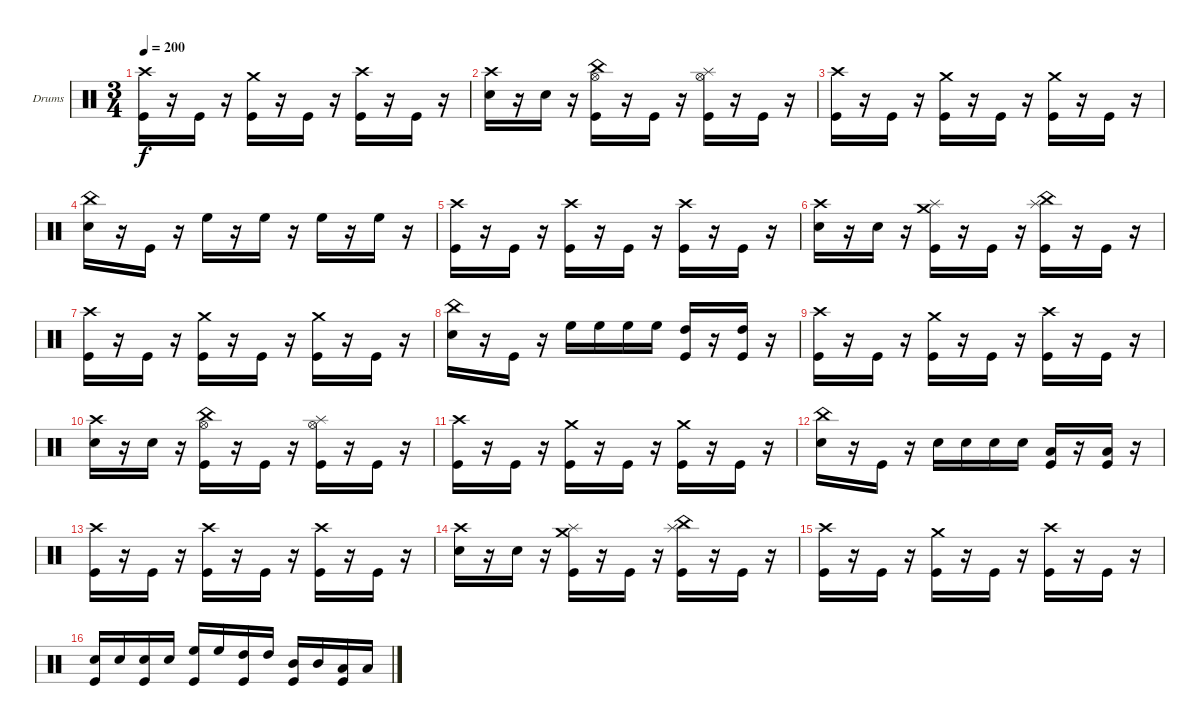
\bracketExtendMode groupsimilarinstruments
\firstSystemTrackNameOrientation horizontal
\otherSystemsTrackNameOrientation horizontal
\track ("Drumkit" "Drums") {instrument percussion}
\staff {score}
\articulation defaults
\ts (3 4)
\tempo 200
\clef neutral
\ks c
("Crash high (hit)" "Kick (hit)").16{dy f} r.16 "Kick (hit)".16 r.16 ("Crash medium (hit)" "Kick (hit)").16 r.16 "Kick (hit)".16 r.16 ("Crash high (hit)" "Kick (hit)").16 r.16 "Kick (hit)".16 r.16 |
("Crash high (hit)" "Snare (hit) 2").16 r.16 "Snare (hit) 2".16 r.16 ("China (hit)" "Hi-Hat (open)" "Kick (hit)").16 r.16 "Kick (hit)".16 r.16 ("Splash (hit)" "Hi-Hat (open)" "Kick (hit)").16 r.16 "Kick (hit)".16 r.16 |
("Crash high (hit)" "Kick (hit)").16 r.16 "Kick (hit)".16 r.16 ("Crash medium (hit)" "Kick (hit)").16 r.16 "Kick (hit)".16 r.16 ("Crash medium (hit)" "Kick (hit)").16 r.16 "Kick (hit)".16 r.16 |
("China (hit)" "Snare (hit) 2").16 r.16 "Kick (hit)".16 r.16 "High Floor Tom (hit)".16 r.16 "High Floor Tom (hit)".16 r.16 "High Floor Tom (hit)".16 r.16 "High Floor Tom (hit)".16 r.16 |
("Crash high (hit)" "Kick (hit)").16 r.16 "Kick (hit)".16 r.16 ("Crash high (hit)" "Kick (hit)").16 r.16 "Kick (hit)".16 r.16 ("Crash high (hit)" "Kick (hit)").16 r.16 "Kick (hit)".16 r.16 |
("Crash high (hit)" "Snare (hit) 2").16 r.16 "Snare (hit) 2".16 r.16 ("Crash medium (hit)" "Splash (hit)" "Kick (hit)").16 r.16 "Kick (hit)".16 r.16 ("China (hit)" "Splash (hit)" "Kick (hit)").16 r.16 "Kick (hit)".16 r.16 |
("Crash high (hit)" "Kick (hit)").16 r.16 "Kick (hit)".16 r.16 ("Crash medium (hit)" "Kick (hit)").16 r.16 "Kick (hit)".16 r.16 ("Crash medium (hit)" "Kick (hit)").16 r.16 "Kick (hit)".16 r.16 |
("China (hit)" "Snare (hit) 2").16 r.16 "Kick (hit)".16 r.16 "High Floor Tom (hit)".16 "High Floor Tom (hit)".16 "High Floor Tom (hit)".16 "High Floor Tom (hit)".16 ("High Tom (hit)" "Kick (hit)").16 r.16 ("High Tom (hit)" "Kick (hit)").16 r.16 |
("Crash high (hit)" "Kick (hit)").16 r.16 "Kick (hit)".16 r.16 ("Crash medium (hit)" "Kick (hit)").16 r.16 "Kick (hit)".16 r.16 ("Crash high (hit)" "Kick (hit)").16 r.16 "Kick (hit)".16 r.16 |
("Crash high (hit)" "Snare (hit) 2").16 r.16 "Snare (hit) 2".16 r.16 ("China (hit)" "Hi-Hat (open)" "Kick (hit)").16 r.16 "Kick (hit)".16 r.16 ("Splash (hit)" "Hi-Hat (open)" "Kick (hit)").16 r.16 "Kick (hit)".16 r.16 |
("Crash high (hit)" "Kick (hit)").16 r.16 "Kick (hit)".16 r.16 ("Crash medium (hit)" "Kick (hit)").16 r.16 "Kick (hit)".16 r.16 ("Crash medium (hit)" "Kick (hit)").16 r.16 "Kick (hit)".16 r.16 |
("China (hit)" "Snare (hit) 2").16 r.16 "Kick (hit)".16 r.16 "Snare (hit) 2".16 "Snare (hit) 2".16 "Snare (hit) 2".16 "Snare (hit) 2".16 ("Low Tom (hit)" "Kick (hit)").16 r.16 ("Low Tom (hit)" "Kick (hit)").16 r.16 |
("Crash high (hit)" "Kick (hit)").16 r.16 "Kick (hit)".16 r.16 ("Crash high (hit)" "Kick (hit)").16 r.16 "Kick (hit)".16 r.16 ("Crash high (hit)" "Kick (hit)").16 r.16 "Kick (hit)".16 r.16 |
("Crash high (hit)" "Snare (hit) 2").16 r.16 "Snare (hit) 2".16 r.16 ("Crash medium (hit)" "Splash (hit)" "Kick (hit)").16 r.16 "Kick (hit)".16 r.16 ("China (hit)" "Splash (hit)" "Kick (hit)").16 r.16 "Kick (hit)".16 r.16 |
("Crash high (hit)" "Kick (hit)").16 r.16 "Kick (hit)".16 r.16 ("Crash medium (hit)" "Kick (hit)").16 r.16 "Kick (hit)".16 r.16 ("Crash high (hit)" "Kick (hit)").16 r.16 "Kick (hit)".16 r.16 |
("Snare (hit) 2" "Kick (hit)").16 "Snare (hit) 2".16 ("Snare (hit) 2" "Kick (hit)").16 "Snare (hit) 2".16 ("High Floor Tom (hit)" "Kick (hit)").16 "High Floor Tom (hit)".16 ("High Tom (hit)" "Kick (hit)").16 "High Tom (hit)".16 ("Mid Tom (hit)" "Kick (hit)").16 "Mid Tom (hit)".16 ("Low Tom (hit)" "Kick (hit)").16 "Low Tom (hit)".16
